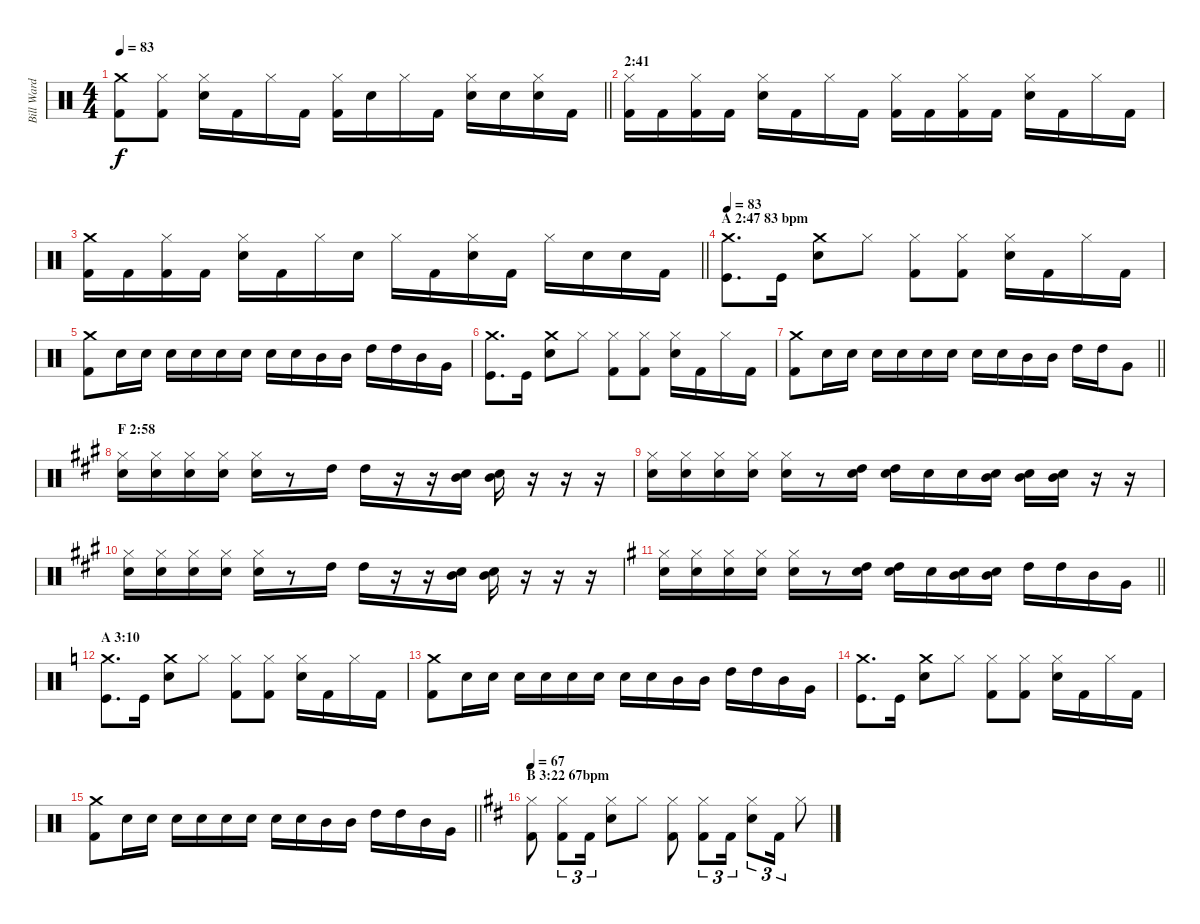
\track ("Bill Ward (Drums)" "Bill Ward ") {instrument percussion}
\staff {score}
\articulation defaults
\ts (4 4)
\tempo 83
\clef neutral
\barLineRight lightlight
\ks c
("Crash medium (hit)" "Kick (hit) 2").8{dy f} ("Hi-Hat (closed)" "Kick (hit) 2").8 ("Hi-Hat (closed)" "Snare (hit) 2").16 "Kick (hit) 2".16 "Hi-Hat (closed)".16 "Kick (hit) 2".16 ("Hi-Hat (closed)" "Kick (hit) 2").16 "Snare (hit) 2".16 "Hi-Hat (closed)".16 "Kick (hit) 2".16 ("Hi-Hat (closed)" "Snare (hit) 2").16 "Snare (hit) 2".16 ("Hi-Hat (closed)" "Snare (hit) 2").16 "Kick (hit) 2".16 |
\section ("" "2:41")
("Hi-Hat (closed)" "Kick (hit) 2").16 "Kick (hit) 2".16 ("Hi-Hat (closed)" "Kick (hit) 2").16 "Kick (hit) 2".16 ("Hi-Hat (closed)" "Snare (hit) 2").16 "Kick (hit) 2".16 "Hi-Hat (closed)".16 "Kick (hit) 2".16 ("Hi-Hat (closed)" "Kick (hit) 2").16 "Kick (hit) 2".16 ("Hi-Hat (closed)" "Kick (hit) 2").16 "Kick (hit) 2".16 ("Hi-Hat (closed)" "Snare (hit) 2").16 "Kick (hit) 2".16 "Hi-Hat (closed)".16 "Kick (hit) 2".16 |
\barLineRight lightlight
("Crash medium (hit)" "Kick (hit) 2").16 "Kick (hit) 2".16 ("Hi-Hat (closed)" "Kick (hit) 2").16 "Kick (hit) 2".16 ("Hi-Hat (closed)" "Snare (hit) 2").16 "Kick (hit) 2".16 "Hi-Hat (closed)".16 "Snare (hit) 2".16 "Hi-Hat (closed)".16 "Kick (hit) 2".16 ("Hi-Hat (closed)" "Snare (hit) 2").16 "Kick (hit) 2".16 "Hi-Hat (closed)".16 "Snare (hit) 2".16 "Snare (hit) 2".16 "Kick (hit) 2".16 |
\section ("" "A 2:47 83 bpm")
\tempo 83
("Crash medium (hit)" "Kick (hit)").8{d} "Kick (hit)".16 ("Crash medium (hit)" "Snare (hit) 2").8 "Hi-Hat (closed)".8 ("Hi-Hat (closed)" "Kick (hit) 2").8 ("Hi-Hat (closed)" "Kick (hit) 2").8 ("Hi-Hat (closed)" "Snare (hit) 2").16 "Kick (hit) 2".16 "Hi-Hat (closed)".16 "Kick (hit) 2".16 |
("Crash medium (hit)" "Kick (hit) 2").8 "Snare (hit) 2".16 "Snare (hit) 2".16 "Snare (hit) 2".16 "Snare (hit) 2".16 "Snare (hit) 2".16 "Snare (hit) 2".16 "Snare (hit) 2".16 "Snare (hit) 2".16 "Mid Tom (hit)".16 "Mid Tom (hit)".16 "High Tom (hit)".16 "High Tom (hit)".16 "Mid Tom (hit)".16 "Very Low Tom (hit)".16 |
("Crash medium (hit)" "Kick (hit)").8{d} "Kick (hit)".16 ("Crash medium (hit)" "Snare (hit) 2").8 "Hi-Hat (closed)".8 ("Hi-Hat (closed)" "Kick (hit) 2").8 ("Hi-Hat (closed)" "Kick (hit) 2").8 ("Hi-Hat (closed)" "Snare (hit) 2").16 "Kick (hit) 2".16 "Hi-Hat (closed)".16 "Kick (hit) 2".16 |
\barLineRight lightlight
("Crash medium (hit)" "Kick (hit) 2").8 "Snare (hit) 2".16 "Snare (hit) 2".16 "Snare (hit) 2".16 "Snare (hit) 2".16 "Snare (hit) 2".16 "Snare (hit) 2".16 "Snare (hit) 2".16 "Snare (hit) 2".16 "Mid Tom (hit)".16 "Mid Tom (hit)".16 "High Tom (hit)".16 "High Tom (hit)".16 "Very Low Tom (hit)".8 |
\section ("" "F 2:58")
\ks a
("Hi-Hat (closed)" "Snare (hit) 2").16 ("Hi-Hat (closed)" "Snare (hit) 2").16 ("Hi-Hat (closed)" "Snare (hit) 2").16 ("Hi-Hat (closed)" "Snare (hit) 2").16 ("Hi-Hat (closed)" "Snare (hit) 2").16 r.8 "High Tom (hit)".16 "High Tom (hit)".16 r.16 r.16 ("Mid Tom (hit)" "Snare (hit) 2").16 ("Mid Tom (hit)" "Snare (hit) 2").16 r.16 r.16 r.16 |
("Hi-Hat (closed)" "Snare (hit) 2").16 ("Hi-Hat (closed)" "Snare (hit) 2").16 ("Hi-Hat (closed)" "Snare (hit) 2").16 ("Hi-Hat (closed)" "Snare (hit) 2").16 ("Hi-Hat (closed)" "Snare (hit) 2").16 r.8 ("High Tom (hit)" "Snare (hit) 2").16 ("High Tom (hit)" "Snare (hit) 2").16 "Snare (hit) 2".16 "Snare (hit) 2".16 ("Mid Tom (hit)" "Snare (hit) 2").16 ("Mid Tom (hit)" "Snare (hit) 2").16 ("Mid Tom (hit)" "Snare (hit) 2").16 r.16 r.16 |
("Hi-Hat (closed)" "Snare (hit) 2").16 ("Hi-Hat (closed)" "Snare (hit) 2").16 ("Hi-Hat (closed)" "Snare (hit) 2").16 ("Hi-Hat (closed)" "Snare (hit) 2").16 ("Hi-Hat (closed)" "Snare (hit) 2").16 r.8 "High Tom (hit)".16 "High Tom (hit)".16 r.16 r.16 ("Mid Tom (hit)" "Snare (hit) 2").16 ("Mid Tom (hit)" "Snare (hit) 2").16 r.16 r.16 r.16 |
\barLineRight lightlight
\ks g
("Hi-Hat (closed)" "Snare (hit) 2").16 ("Hi-Hat (closed)" "Snare (hit) 2").16 ("Hi-Hat (closed)" "Snare (hit) 2").16 ("Hi-Hat (closed)" "Snare (hit) 2").16 ("Hi-Hat (closed)" "Snare (hit) 2").16 r.8 ("High Tom (hit)" "Snare (hit) 2").16 ("High Tom (hit)" "Snare (hit) 2").16 "Snare (hit) 2".16 ("Mid Tom (hit)" "Snare (hit) 2").16 ("Mid Tom (hit)" "Snare (hit) 2").16 "High Tom (hit)".16 "High Tom (hit)".16 "Mid Tom (hit)".16 "Very Low Tom (hit)".16 |
\section ("" "A 3:10")
\ks c
("Crash medium (hit)" "Kick (hit)").8{d} "Kick (hit)".16 ("Crash medium (hit)" "Snare (hit) 2").8 "Hi-Hat (closed)".8 ("Hi-Hat (closed)" "Kick (hit) 2").8 ("Hi-Hat (closed)" "Kick (hit) 2").8 ("Hi-Hat (closed)" "Snare (hit) 2").16 "Kick (hit) 2".16 "Hi-Hat (closed)".16 "Kick (hit) 2".16 |
("Crash medium (hit)" "Kick (hit) 2").8 "Snare (hit) 2".16 "Snare (hit) 2".16 "Snare (hit) 2".16 "Snare (hit) 2".16 "Snare (hit) 2".16 "Snare (hit) 2".16 "Snare (hit) 2".16 "Snare (hit) 2".16 "Mid Tom (hit)".16 "Mid Tom (hit)".16 "High Tom (hit)".16 "High Tom (hit)".16 "Mid Tom (hit)".16 "Very Low Tom (hit)".16 |
("Crash medium (hit)" "Kick (hit)").8{d} "Kick (hit)".16 ("Crash medium (hit)" "Snare (hit) 2").8 "Hi-Hat (closed)".8 ("Hi-Hat (closed)" "Kick (hit) 2").8 ("Hi-Hat (closed)" "Kick (hit) 2").8 ("Hi-Hat (closed)" "Snare (hit) 2").16 "Kick (hit) 2".16 "Hi-Hat (closed)".16 "Kick (hit) 2".16 |
\barLineRight lightlight
("Crash medium (hit)" "Kick (hit) 2").8 "Snare (hit) 2".16 "Snare (hit) 2".16 "Snare (hit) 2".16 "Snare (hit) 2".16 "Snare (hit) 2".16 "Snare (hit) 2".16 "Snare (hit) 2".16 "Snare (hit) 2".16 "Mid Tom (hit)".16 "Mid Tom (hit)".16 "High Tom (hit)".16 "High Tom (hit)".16 "Mid Tom (hit)".16 "Very Low Tom (hit)".16 |
\section ("" "B 3:22 67bpm")
\tempo 67
\ks d
("Hi-Hat (closed)" "Kick (hit) 2").8 ("Hi-Hat (closed)" "Kick (hit) 2").8{tu (3 2)} "Kick (hit) 2".16{tu (3 2)} ("Hi-Hat (closed)" "Snare (hit) 2").8 "Hi-Hat (closed)".8 ("Hi-Hat (closed)" "Kick (hit) 2").8 ("Hi-Hat (closed)" "Kick (hit) 2").8{tu (3 2)} "Kick (hit) 2".16{tu (3 2)} ("Hi-Hat (closed)" "Snare (hit) 2").8{tu (3 2)} "Kick (hit) 2".16{tu (3 2)} "Hi-Hat (closed)".8
